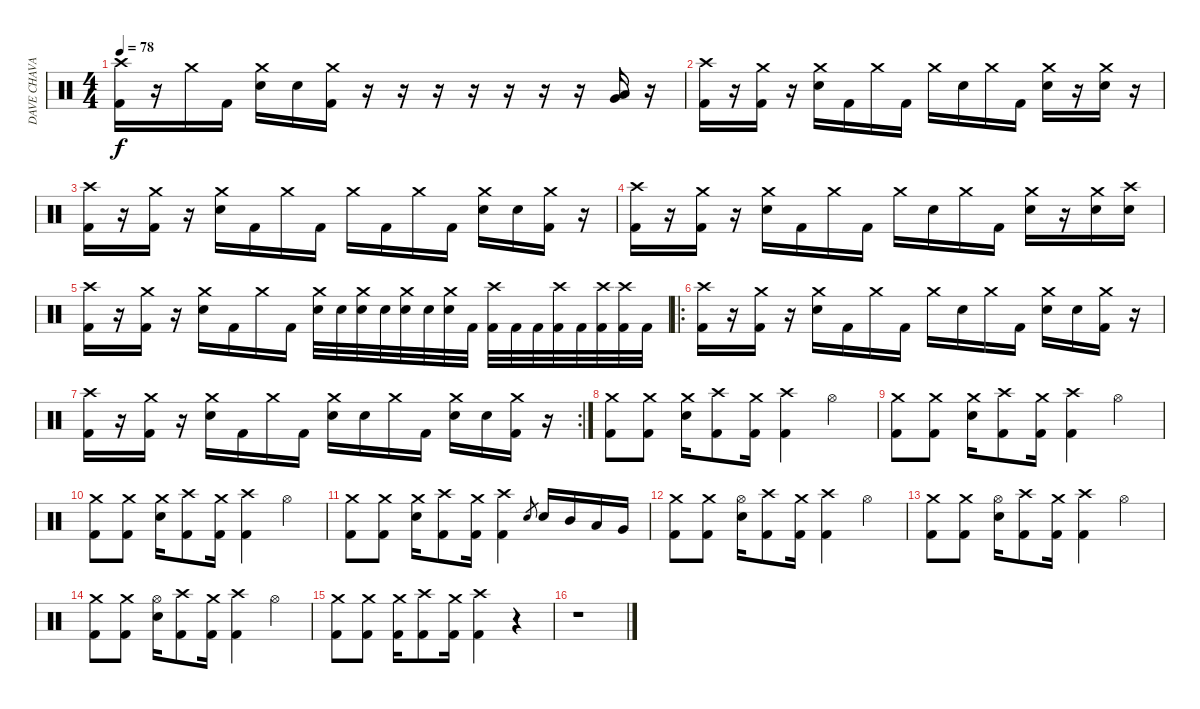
\track ("DAVE CHAVARRI" "DAVE CHAVA") {instrument percussion}
\staff {score}
\articulation defaults
\ts (4 4)
\tempo 78
\clef neutral
\ks c
("Crash high (hit)" "Kick (hit) 2").16{dy f} r.16 "Crash medium (hit)".16 "Kick (hit) 2".16 ("Crash medium (hit)" "Electric Snare (hit)").16 "Electric Snare (hit)".16 ("Crash medium (hit)" "Kick (hit) 2").16 r.16 r.16 r.16 r.16 r.16 r.16 r.16 ("Low Floor Tom (hit)" "Very Low Tom (hit)").16 r.16 |
("Crash high (hit)" "Kick (hit) 2").16 r.16 ("Crash medium (hit)" "Kick (hit) 2").16 r.16 ("Crash medium (hit)" "Electric Snare (hit)").16 "Kick (hit) 2".16 "Crash medium (hit)".16 "Kick (hit) 2".16 "Crash medium (hit)".16 "Electric Snare (hit)".16 "Crash medium (hit)".16 "Kick (hit) 2".16 ("Crash medium (hit)" "Electric Snare (hit)").16 r.16 ("Crash medium (hit)" "Electric Snare (hit)").16 r.16 |
("Crash high (hit)" "Kick (hit) 2").16 r.16 ("Crash medium (hit)" "Kick (hit) 2").16 r.16 ("Crash medium (hit)" "Electric Snare (hit)").16 "Kick (hit) 2".16 "Crash medium (hit)".16 "Kick (hit) 2".16 "Crash medium (hit)".16 "Kick (hit) 2".16 "Crash medium (hit)".16 "Kick (hit) 2".16 ("Crash medium (hit)" "Electric Snare (hit)").16 "Electric Snare (hit)".16 ("Crash medium (hit)" "Kick (hit) 2").16 r.16 |
("Crash high (hit)" "Kick (hit) 2").16 r.16 ("Crash medium (hit)" "Kick (hit) 2").16 r.16 ("Crash medium (hit)" "Electric Snare (hit)").16 "Kick (hit) 2".16 "Crash medium (hit)".16 "Kick (hit) 2".16 "Crash medium (hit)".16 "Electric Snare (hit)".16 "Crash medium (hit)".16 "Kick (hit) 2".16 ("Crash medium (hit)" "Electric Snare (hit)").16 r.16 ("Crash medium (hit)" "Electric Snare (hit)").16 ("Crash high (hit)" "Electric Snare (hit)").16 |
("Crash high (hit)" "Kick (hit) 2").16 r.16 ("Crash medium (hit)" "Kick (hit) 2").16 r.16 ("Crash medium (hit)" "Electric Snare (hit)").16 "Kick (hit) 2".16 "Crash medium (hit)".16 "Kick (hit) 2".16 ("Crash medium (hit)" "Electric Snare (hit)").32 "Electric Snare (hit)".32 ("Crash medium (hit)" "Electric Snare (hit)").32 "Electric Snare (hit)".32 ("Crash medium (hit)" "Electric Snare (hit)").32 "Electric Snare (hit)".32 ("Crash medium (hit)" "Electric Snare (hit)").32 "Kick (hit) 2".32 ("Crash high (hit)" "Kick (hit) 2").32 "Kick (hit) 2".32 "Kick (hit) 2".32 ("Crash high (hit)" "Kick (hit) 2").32 "Kick (hit) 2".32 ("Crash high (hit)" "Kick (hit) 2").32 ("Crash high (hit)" "Kick (hit) 2").32 "Kick (hit) 2".32 |
\ro
("Crash high (hit)" "Kick (hit) 2").16 r.16 ("Crash medium (hit)" "Kick (hit) 2").16 r.16 ("Crash medium (hit)" "Electric Snare (hit)").16 "Kick (hit) 2".16 "Crash medium (hit)".16 "Kick (hit) 2".16 "Crash medium (hit)".16 "Electric Snare (hit)".16 "Crash medium (hit)".16 "Kick (hit) 2".16 ("Crash medium (hit)" "Electric Snare (hit)").16 "Electric Snare (hit)".16 ("Crash medium (hit)" "Kick (hit) 2").16 r.16 |
\rc 2
("Crash high (hit)" "Kick (hit) 2").16 r.16 ("Crash medium (hit)" "Kick (hit) 2").16 r.16 ("Crash medium (hit)" "Electric Snare (hit)").16 "Kick (hit) 2".16 "Crash medium (hit)".16 "Kick (hit) 2".16 ("Crash medium (hit)" "Electric Snare (hit)").16 "Electric Snare (hit)".16 "Crash medium (hit)".16 "Kick (hit) 2".16 ("Crash medium (hit)" "Electric Snare (hit)").16 "Electric Snare (hit)".16 ("Crash medium (hit)" "Kick (hit) 2").16 r.16 |
("Crash medium (hit)" "Kick (hit) 2").8 ("Crash medium (hit)" "Kick (hit) 2").8 ("Crash medium (hit)" "Electric Snare (hit)").16 ("Crash high (hit)" "Kick (hit) 2").8 ("Crash medium (hit)" "Kick (hit) 2").16 ("Crash high (hit)" "Kick (hit) 2").4 "Hi-Hat (open)".4 |
("Crash medium (hit)" "Kick (hit) 2").8 ("Crash medium (hit)" "Kick (hit) 2").8 ("Crash medium (hit)" "Electric Snare (hit)").16 ("Crash high (hit)" "Kick (hit) 2").8 ("Crash medium (hit)" "Kick (hit) 2").16 ("Crash high (hit)" "Kick (hit) 2").4 "Hi-Hat (open)".4 |
("Crash medium (hit)" "Kick (hit) 2").8 ("Crash medium (hit)" "Kick (hit) 2").8 ("Crash medium (hit)" "Electric Snare (hit)").16 ("Crash high (hit)" "Kick (hit) 2").8 ("Crash medium (hit)" "Kick (hit) 2").16 ("Crash high (hit)" "Kick (hit) 2").4 "Hi-Hat (open)".4 |
("Crash medium (hit)" "Kick (hit) 2").8 ("Crash medium (hit)" "Kick (hit) 2").8 ("Crash medium (hit)" "Electric Snare (hit)").16 ("Crash high (hit)" "Kick (hit) 2").8 ("Crash medium (hit)" "Kick (hit) 2").16 ("Crash high (hit)" "Kick (hit) 2").4 "Electric Snare (hit)".8{gr} "Electric Snare (hit)".16 "Mid Tom (hit)".16 "Low Tom (hit)".16 "Very Low Tom (hit)".16 |
("Crash medium (hit)" "Kick (hit) 2").8 ("Crash medium (hit)" "Kick (hit) 2").8 ("Hi-Hat (open)" "Electric Snare (hit)").16 ("Crash high (hit)" "Kick (hit) 2").8 ("Crash medium (hit)" "Kick (hit) 2").16 ("Crash high (hit)" "Kick (hit) 2").4 "Hi-Hat (open)".4 |
("Crash medium (hit)" "Kick (hit) 2").8 ("Crash medium (hit)" "Kick (hit) 2").8 ("Hi-Hat (open)" "Electric Snare (hit)").16 ("Crash high (hit)" "Kick (hit) 2").8 ("Crash medium (hit)" "Kick (hit) 2").16 ("Crash high (hit)" "Kick (hit) 2").4 "Hi-Hat (open)".4 |
("Crash medium (hit)" "Kick (hit) 2").8 ("Crash medium (hit)" "Kick (hit) 2").8 ("Hi-Hat (open)" "Electric Snare (hit)").16 ("Crash high (hit)" "Kick (hit) 2").8 ("Crash medium (hit)" "Kick (hit) 2").16 ("Crash high (hit)" "Kick (hit) 2").4 "Hi-Hat (open)".4 |
("Crash medium (hit)" "Kick (hit) 2").8 ("Crash medium (hit)" "Kick (hit) 2").8 ("Crash medium (hit)" "Kick (hit) 2").16 ("Crash high (hit)" "Kick (hit) 2").8 ("Crash medium (hit)" "Kick (hit) 2").16 ("Crash high (hit)" "Kick (hit) 2").4 r.4 |
r.1
